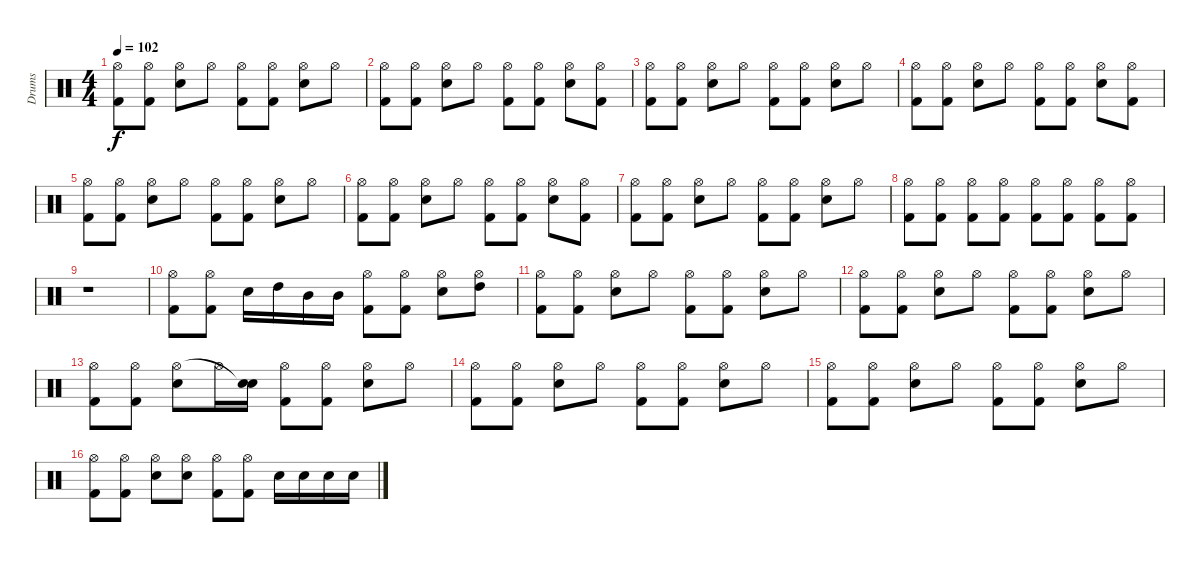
\track ("Drums" "Drums") {instrument percussion}
\staff {score}
\articulation defaults
\ts (4 4)
\tempo 102
\clef neutral
\ks c
("Kick (hit) 2" "Hi-Hat (open)").8{dy f} ("Kick (hit) 2" "Hi-Hat (open)").8 ("Electric Snare (hit)" "Hi-Hat (open)").8 "Hi-Hat (open)".8 ("Kick (hit) 2" "Hi-Hat (open)").8 ("Kick (hit) 2" "Hi-Hat (open)").8 ("Electric Snare (hit)" "Hi-Hat (open)").8 "Hi-Hat (open)".8 |
("Kick (hit) 2" "Hi-Hat (open)").8 ("Kick (hit) 2" "Hi-Hat (open)").8 ("Electric Snare (hit)" "Hi-Hat (open)").8 "Hi-Hat (open)".8 ("Kick (hit) 2" "Hi-Hat (open)").8 ("Kick (hit) 2" "Hi-Hat (open)").8 ("Electric Snare (hit)" "Hi-Hat (open)").8 ("Kick (hit) 2" "Hi-Hat (open)").8 |
("Kick (hit) 2" "Hi-Hat (open)").8 ("Kick (hit) 2" "Hi-Hat (open)").8 ("Electric Snare (hit)" "Hi-Hat (open)").8 "Hi-Hat (open)".8 ("Kick (hit) 2" "Hi-Hat (open)").8 ("Kick (hit) 2" "Hi-Hat (open)").8 ("Electric Snare (hit)" "Hi-Hat (open)").8 "Hi-Hat (open)".8 |
("Kick (hit) 2" "Hi-Hat (open)").8 ("Kick (hit) 2" "Hi-Hat (open)").8 ("Electric Snare (hit)" "Hi-Hat (open)").8 "Hi-Hat (open)".8 ("Kick (hit) 2" "Hi-Hat (open)").8 ("Kick (hit) 2" "Hi-Hat (open)").8 ("Electric Snare (hit)" "Hi-Hat (open)").8 ("Kick (hit) 2" "Hi-Hat (open)").8 |
("Kick (hit) 2" "Hi-Hat (open)").8 ("Kick (hit) 2" "Hi-Hat (open)").8 ("Electric Snare (hit)" "Hi-Hat (open)").8 "Hi-Hat (open)".8 ("Kick (hit) 2" "Hi-Hat (open)").8 ("Kick (hit) 2" "Hi-Hat (open)").8 ("Electric Snare (hit)" "Hi-Hat (open)").8 "Hi-Hat (open)".8 |
("Kick (hit) 2" "Hi-Hat (open)").8 ("Kick (hit) 2" "Hi-Hat (open)").8 ("Electric Snare (hit)" "Hi-Hat (open)").8 "Hi-Hat (open)".8 ("Kick (hit) 2" "Hi-Hat (open)").8 ("Kick (hit) 2" "Hi-Hat (open)").8 ("Electric Snare (hit)" "Hi-Hat (open)").8 ("Kick (hit) 2" "Hi-Hat (open)").8 |
("Kick (hit) 2" "Hi-Hat (open)").8 ("Kick (hit) 2" "Hi-Hat (open)").8 ("Electric Snare (hit)" "Hi-Hat (open)").8 "Hi-Hat (open)".8 ("Kick (hit) 2" "Hi-Hat (open)").8 ("Kick (hit) 2" "Hi-Hat (open)").8 ("Electric Snare (hit)" "Hi-Hat (open)").8 "Hi-Hat (open)".8 |
("Kick (hit) 2" "Hi-Hat (open)").8 ("Kick (hit) 2" "Hi-Hat (open)").8 ("Kick (hit) 2" "Hi-Hat (open)").8 ("Kick (hit) 2" "Hi-Hat (open)").8 ("Kick (hit) 2" "Hi-Hat (open)").8 ("Kick (hit) 2" "Hi-Hat (open)").8 ("Kick (hit) 2" "Hi-Hat (open)").8 ("Kick (hit) 2" "Hi-Hat (open)").8 |
r.1 |
("Hi-Hat (open)" "Kick (hit) 2").8 ("Hi-Hat (open)" "Kick (hit) 2").8 "Electric Snare (hit)".16 "High Tom (hit)".16 "Mid Tom (hit)".16 "Mid Tom (hit)".16 ("Kick (hit) 2" "Hi-Hat (open)").8 ("Kick (hit) 2" "Hi-Hat (open)").8 ("Electric Snare (hit)" "Hi-Hat (open)").8 ("High Tom (hit)" "Hi-Hat (open)").8 |
("Kick (hit) 2" "Hi-Hat (open)").8 ("Kick (hit) 2" "Hi-Hat (open)").8 ("Electric Snare (hit)" "Hi-Hat (open)").8 "Hi-Hat (open)".8 ("Kick (hit) 2" "Hi-Hat (open)").8 ("Kick (hit) 2" "Hi-Hat (open)").8 ("Electric Snare (hit)" "Hi-Hat (open)").8 "Hi-Hat (open)".8 |
("Kick (hit) 2" "Hi-Hat (open)").8 ("Kick (hit) 2" "Hi-Hat (open)").8 ("Electric Snare (hit)" "Hi-Hat (open)").8 "Hi-Hat (open)".8 ("Kick (hit) 2" "Hi-Hat (open)").8 ("Kick (hit) 2" "Hi-Hat (open)").8 ("Electric Snare (hit)" "Hi-Hat (open)").8 "Hi-Hat (open)".8 |
("Kick (hit) 2" "Hi-Hat (open)").8 ("Kick (hit) 2" "Hi-Hat (open)").8 ("Electric Snare (hit)" "Hi-Hat (open)").8 "Hi-Hat (open)".16 ("Electric Snare (hit)" "Snare (hit)"{t}).16 ("Kick (hit) 2" "Hi-Hat (open)").8 ("Kick (hit) 2" "Hi-Hat (open)").8 ("Electric Snare (hit)" "Hi-Hat (open)").8 "Hi-Hat (open)".8 |
("Kick (hit) 2" "Hi-Hat (open)").8 ("Kick (hit) 2" "Hi-Hat (open)").8 ("Electric Snare (hit)" "Hi-Hat (open)").8 "Hi-Hat (open)".8 ("Kick (hit) 2" "Hi-Hat (open)").8 ("Kick (hit) 2" "Hi-Hat (open)").8 ("Electric Snare (hit)" "Hi-Hat (open)").8 "Hi-Hat (open)".8 |
("Kick (hit) 2" "Hi-Hat (open)").8 ("Kick (hit) 2" "Hi-Hat (open)").8 ("Electric Snare (hit)" "Hi-Hat (open)").8 "Hi-Hat (open)".8 ("Kick (hit) 2" "Hi-Hat (open)").8 ("Kick (hit) 2" "Hi-Hat (open)").8 ("Electric Snare (hit)" "Hi-Hat (open)").8 "Hi-Hat (open)".8 |
("Kick (hit) 2" "Hi-Hat (open)").8 ("Kick (hit) 2" "Hi-Hat (open)").8 ("Electric Snare (hit)" "Hi-Hat (open)").8 ("Electric Snare (hit)" "Hi-Hat (open)").8 ("Kick (hit) 2" "Hi-Hat (open)").8 ("Kick (hit) 2" "Hi-Hat (open)").8 "Electric Snare (hit)".16 "Electric Snare (hit)".16 "Electric Snare (hit)".16 "Electric Snare (hit)".16
